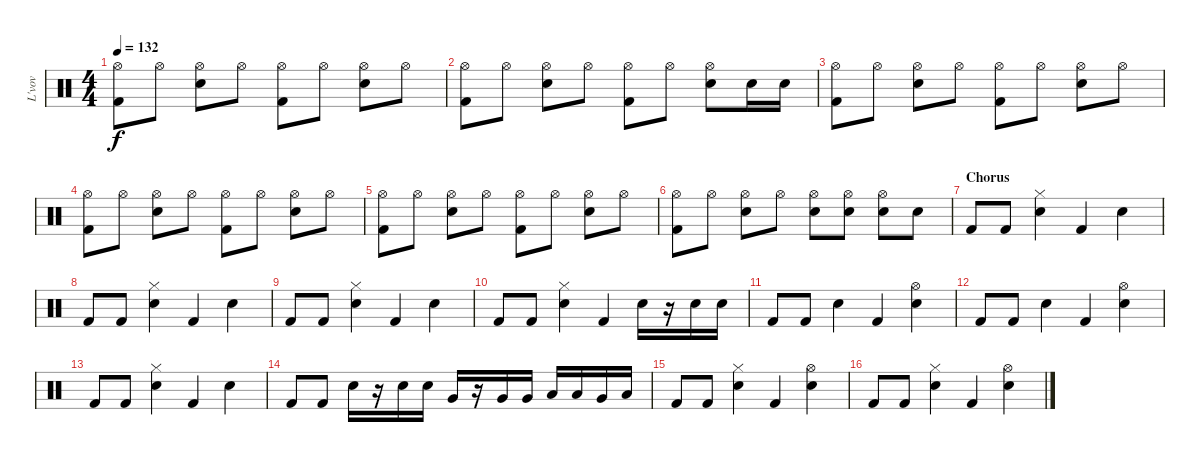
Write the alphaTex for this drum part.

\track ("L'vov" "L'vov") {instrument percussion}
\staff {score}
\articulation defaults
\ts (4 4)
\tempo 132
\clef neutral
\ks c
("Hi-Hat (open)" "Kick (hit) 2").8{dy f} "Hi-Hat (open)".8 ("Hi-Hat (open)" "Snare (hit) 2").8 "Hi-Hat (open)".8 ("Hi-Hat (open)" "Kick (hit) 2").8 "Hi-Hat (open)".8 ("Hi-Hat (open)" "Snare (hit) 2").8 "Hi-Hat (open)".8 |
("Hi-Hat (open)" "Kick (hit) 2").8 "Hi-Hat (open)".8 ("Hi-Hat (open)" "Snare (hit) 2").8 "Hi-Hat (open)".8 ("Hi-Hat (open)" "Kick (hit) 2").8 "Hi-Hat (open)".8 ("Hi-Hat (open)" "Snare (hit) 2").8 "Snare (hit) 2".16 "Snare (hit) 2".16 |
("Hi-Hat (open)" "Kick (hit) 2").8 "Hi-Hat (open)".8 ("Hi-Hat (open)" "Snare (hit) 2").8 "Hi-Hat (open)".8 ("Hi-Hat (open)" "Kick (hit) 2").8 "Hi-Hat (open)".8 ("Hi-Hat (open)" "Snare (hit) 2").8 "Hi-Hat (open)".8 |
("Hi-Hat (open)" "Kick (hit) 2").8 "Hi-Hat (open)".8 ("Hi-Hat (open)" "Snare (hit) 2").8 "Hi-Hat (open)".8 ("Hi-Hat (open)" "Kick (hit) 2").8 "Hi-Hat (open)".8 ("Hi-Hat (open)" "Snare (hit) 2").8 "Hi-Hat (open)".8 |
("Hi-Hat (open)" "Kick (hit) 2").8 "Hi-Hat (open)".8 ("Hi-Hat (open)" "Snare (hit) 2").8 "Hi-Hat (open)".8 ("Hi-Hat (open)" "Kick (hit) 2").8 "Hi-Hat (open)".8 ("Hi-Hat (open)" "Snare (hit) 2").8 "Hi-Hat (open)".8 |
("Hi-Hat (open)" "Kick (hit) 2").8 "Hi-Hat (open)".8 ("Hi-Hat (open)" "Snare (hit) 2").8 "Hi-Hat (open)".8 ("Hi-Hat (open)" "Snare (hit) 2").8 ("Hi-Hat (open)" "Snare (hit) 2").8 ("Hi-Hat (open)" "Snare (hit) 2").8 "Snare (hit) 2".8 |
\section ("" "Chorus")
"Kick (hit) 2".8 "Kick (hit) 2".8 ("Snare (hit) 2" "Hi-Hat (closed)").4 "Kick (hit) 2".4 "Snare (hit) 2".4 |
"Kick (hit) 2".8 "Kick (hit) 2".8 ("Snare (hit) 2" "Hi-Hat (closed)").4 "Kick (hit) 2".4 "Snare (hit) 2".4 |
"Kick (hit) 2".8 "Kick (hit) 2".8 ("Snare (hit) 2" "Hi-Hat (closed)").4 "Kick (hit) 2".4 "Snare (hit) 2".4 |
"Kick (hit) 2".8 "Kick (hit) 2".8 ("Snare (hit) 2" "Hi-Hat (closed)").4 "Kick (hit) 2".4 "Snare (hit) 2".16 r.16 "Snare (hit) 2".16 "Snare (hit) 2".16 |
"Kick (hit) 2".8 "Kick (hit) 2".8 "Snare (hit) 2".4 "Kick (hit) 2".4 ("Snare (hit) 2" "Hi-Hat (open)").4 |
"Kick (hit) 2".8 "Kick (hit) 2".8 "Snare (hit) 2".4 "Kick (hit) 2".4 ("Snare (hit) 2" "Hi-Hat (open)").4 |
"Kick (hit) 2".8 "Kick (hit) 2".8 ("Snare (hit) 2" "Hi-Hat (closed)").4 "Kick (hit) 2".4 "Snare (hit) 2".4 |
"Kick (hit) 2".8 "Kick (hit) 2".8 "Snare (hit) 2".16 r.16 "Snare (hit) 2".16 "Snare (hit) 2".16 "Very Low Tom (hit)".16 r.16 "Very Low Tom (hit)".16 "Very Low Tom (hit)".16 "Low Floor Tom (hit)".16 "Low Floor Tom (hit)".16 "Very Low Tom (hit)".16 "Low Tom (hit)".16 |
"Kick (hit) 2".8 "Kick (hit) 2".8 ("Snare (hit) 2" "Hi-Hat (closed)").4 "Kick (hit) 2".4 ("Snare (hit) 2" "Hi-Hat (open)").4 |
"Kick (hit) 2".8 "Kick (hit) 2".8 ("Snare (hit) 2" "Hi-Hat (closed)").4 "Kick (hit) 2".4 ("Snare (hit) 2" "Hi-Hat (open)").4
